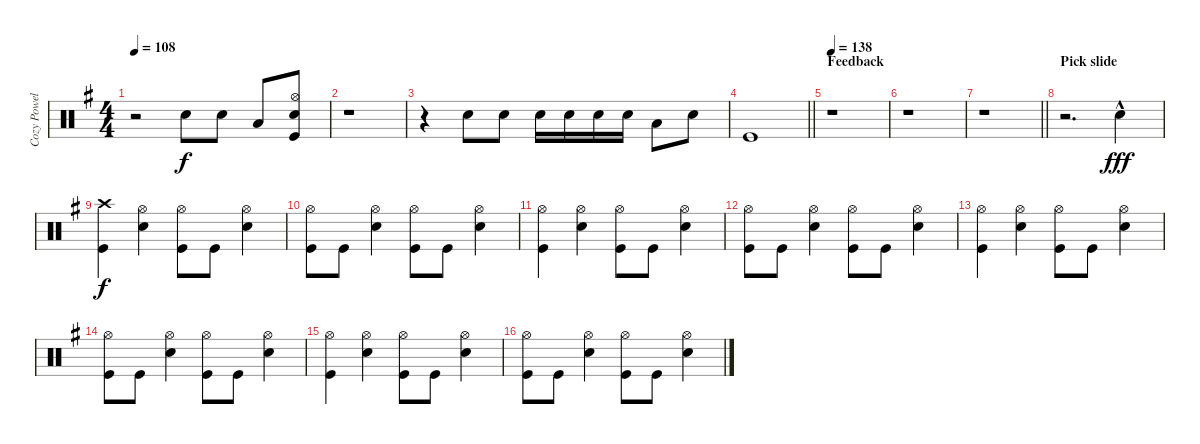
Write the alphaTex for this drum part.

\track ("Cozy Powell Drums" "Cozy Powel") {instrument percussion}
\staff {score}
\articulation defaults
\ts (4 4)
\tempo 108
\clef neutral
\ks g
r.2{dy f} "Snare (hit) 2".8 "Snare (hit) 2".8 "Low Tom (hit)".8 ("Hi-Hat (open)" "Snare (hit) 2" "Kick (hit)").8 |
r.1 |
r.4 "Snare (hit) 2".8 "Snare (hit) 2".8 "Snare (hit) 2".16 "Snare (hit) 2".16 "Snare (hit) 2".16 "Snare (hit) 2".16 "Low Tom (hit)".8 "Snare (hit) 2".8 |
\barLineRight lightlight "Kick (hit)".1
|
\section ("" "Feedback")
\tempo 138
r.1 |
r.1 |
\barLineRight lightlight
r.1 |
\section ("" "Pick slide")
r.2{d} "Snare (hit) 2"{hac}.4{dy fff} |
("Crash high (hit)" "Kick (hit)").4{dy f} ("Hi-Hat (open)" "Snare (hit) 2").4 ("Hi-Hat (open)" "Kick (hit)").8 "Kick (hit)".8 ("Hi-Hat (open)" "Snare (hit) 2").4 |
("Hi-Hat (open)" "Kick (hit)").8 "Kick (hit)".8 ("Hi-Hat (open)" "Snare (hit) 2").4 ("Hi-Hat (open)" "Kick (hit)").8 "Kick (hit)".8 ("Hi-Hat (open)" "Snare (hit) 2").4 |
("Hi-Hat (open)" "Kick (hit)").4 ("Hi-Hat (open)" "Snare (hit) 2").4 ("Hi-Hat (open)" "Kick (hit)").8 "Kick (hit)".8 ("Hi-Hat (open)" "Snare (hit) 2").4 |
("Hi-Hat (open)" "Kick (hit)").8 "Kick (hit)".8 ("Hi-Hat (open)" "Snare (hit) 2").4 ("Hi-Hat (open)" "Kick (hit)").8 "Kick (hit)".8 ("Hi-Hat (open)" "Snare (hit) 2").4 |
("Hi-Hat (open)" "Kick (hit)").4 ("Hi-Hat (open)" "Snare (hit) 2").4 ("Hi-Hat (open)" "Kick (hit)").8 "Kick (hit)".8 ("Hi-Hat (open)" "Snare (hit) 2").4 |
("Hi-Hat (open)" "Kick (hit)").8 "Kick (hit)".8 ("Hi-Hat (open)" "Snare (hit) 2").4 ("Hi-Hat (open)" "Kick (hit)").8 "Kick (hit)".8 ("Hi-Hat (open)" "Snare (hit) 2").4 |
("Hi-Hat (open)" "Kick (hit)").4 ("Hi-Hat (open)" "Snare (hit) 2").4 ("Hi-Hat (open)" "Kick (hit)").8 "Kick (hit)".8 ("Hi-Hat (open)" "Snare (hit) 2").4 |
("Hi-Hat (open)" "Kick (hit)").8 "Kick (hit)".8 ("Hi-Hat (open)" "Snare (hit) 2").4 ("Hi-Hat (open)" "Kick (hit)").8 "Kick (hit)".8 ("Hi-Hat (open)" "Snare (hit) 2").4
